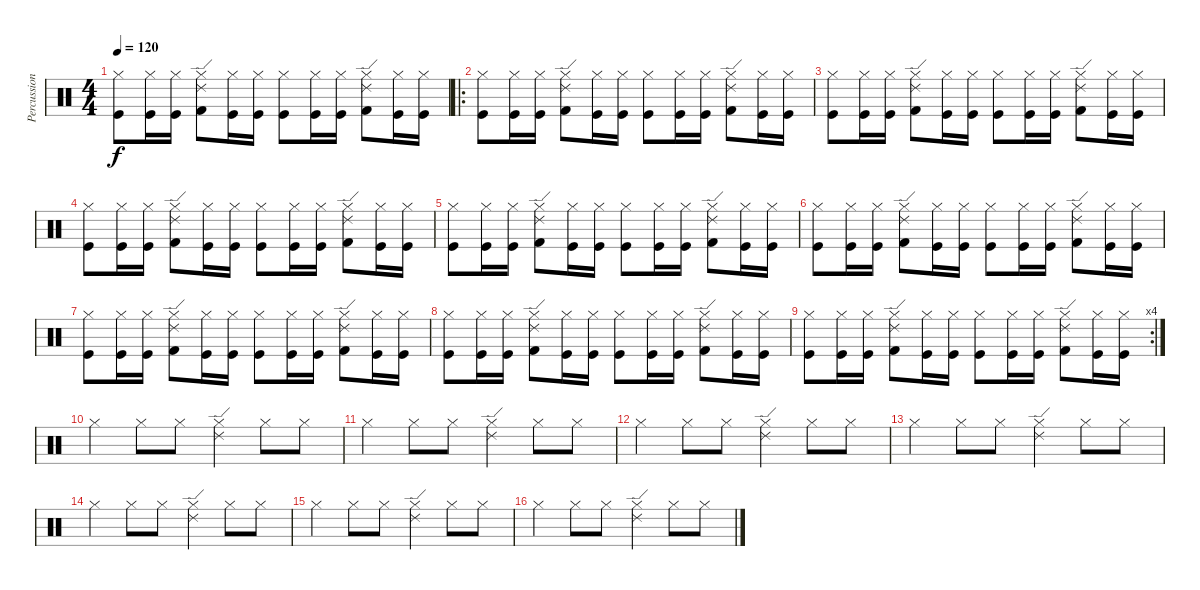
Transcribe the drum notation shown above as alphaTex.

\track ("Percussions" "Percussion") {instrument percussion}
\staff {score}
\articulation defaults
\ts (4 4)
\tempo 120
\clef neutral
\ks c
("Hi-Hat (closed)" "Kick (hit)").8{dy f} ("Hi-Hat (closed)" "Kick (hit)").16 ("Hi-Hat (closed)" "Kick (hit)").16 ("Hi-Hat (closed)" "Ride (edge) 2" "Kick (hit) 2").8 ("Hi-Hat (closed)" "Kick (hit)").16 ("Hi-Hat (closed)" "Kick (hit)").16 ("Hi-Hat (closed)" "Kick (hit)").8 ("Hi-Hat (closed)" "Kick (hit)").16 ("Hi-Hat (closed)" "Kick (hit)").16 ("Hi-Hat (closed)" "Ride (edge) 2" "Kick (hit) 2").8 ("Hi-Hat (closed)" "Kick (hit)").16 ("Hi-Hat (closed)" "Kick (hit)").16 |
\ro
("Hi-Hat (closed)" "Kick (hit)").8 ("Hi-Hat (closed)" "Kick (hit)").16 ("Hi-Hat (closed)" "Kick (hit)").16 ("Hi-Hat (closed)" "Ride (edge) 2" "Kick (hit) 2").8 ("Hi-Hat (closed)" "Kick (hit)").16 ("Hi-Hat (closed)" "Kick (hit)").16 ("Hi-Hat (closed)" "Kick (hit)").8 ("Hi-Hat (closed)" "Kick (hit)").16 ("Hi-Hat (closed)" "Kick (hit)").16 ("Hi-Hat (closed)" "Ride (edge) 2" "Kick (hit) 2").8 ("Hi-Hat (closed)" "Kick (hit)").16 ("Hi-Hat (closed)" "Kick (hit)").16 |
("Hi-Hat (closed)" "Kick (hit)").8 ("Hi-Hat (closed)" "Kick (hit)").16 ("Hi-Hat (closed)" "Kick (hit)").16 ("Hi-Hat (closed)" "Ride (edge) 2" "Kick (hit) 2").8 ("Hi-Hat (closed)" "Kick (hit)").16 ("Hi-Hat (closed)" "Kick (hit)").16 ("Hi-Hat (closed)" "Kick (hit)").8 ("Hi-Hat (closed)" "Kick (hit)").16 ("Hi-Hat (closed)" "Kick (hit)").16 ("Hi-Hat (closed)" "Ride (edge) 2" "Kick (hit) 2").8 ("Hi-Hat (closed)" "Kick (hit)").16 ("Hi-Hat (closed)" "Kick (hit)").16 |
("Hi-Hat (closed)" "Kick (hit)").8 ("Hi-Hat (closed)" "Kick (hit)").16 ("Hi-Hat (closed)" "Kick (hit)").16 ("Hi-Hat (closed)" "Ride (edge) 2" "Kick (hit) 2").8 ("Hi-Hat (closed)" "Kick (hit)").16 ("Hi-Hat (closed)" "Kick (hit)").16 ("Hi-Hat (closed)" "Kick (hit)").8 ("Hi-Hat (closed)" "Kick (hit)").16 ("Hi-Hat (closed)" "Kick (hit)").16 ("Hi-Hat (closed)" "Ride (edge) 2" "Kick (hit) 2").8 ("Hi-Hat (closed)" "Kick (hit)").16 ("Hi-Hat (closed)" "Kick (hit)").16 |
("Hi-Hat (closed)" "Kick (hit)").8 ("Hi-Hat (closed)" "Kick (hit)").16 ("Hi-Hat (closed)" "Kick (hit)").16 ("Hi-Hat (closed)" "Ride (edge) 2" "Kick (hit) 2").8 ("Hi-Hat (closed)" "Kick (hit)").16 ("Hi-Hat (closed)" "Kick (hit)").16 ("Hi-Hat (closed)" "Kick (hit)").8 ("Hi-Hat (closed)" "Kick (hit)").16 ("Hi-Hat (closed)" "Kick (hit)").16 ("Hi-Hat (closed)" "Ride (edge) 2" "Kick (hit) 2").8 ("Hi-Hat (closed)" "Kick (hit)").16 ("Hi-Hat (closed)" "Kick (hit)").16 |
("Hi-Hat (closed)" "Kick (hit)").8 ("Hi-Hat (closed)" "Kick (hit)").16 ("Hi-Hat (closed)" "Kick (hit)").16 ("Hi-Hat (closed)" "Ride (edge) 2" "Kick (hit) 2").8 ("Hi-Hat (closed)" "Kick (hit)").16 ("Hi-Hat (closed)" "Kick (hit)").16 ("Hi-Hat (closed)" "Kick (hit)").8 ("Hi-Hat (closed)" "Kick (hit)").16 ("Hi-Hat (closed)" "Kick (hit)").16 ("Hi-Hat (closed)" "Ride (edge) 2" "Kick (hit) 2").8 ("Hi-Hat (closed)" "Kick (hit)").16 ("Hi-Hat (closed)" "Kick (hit)").16 |
("Hi-Hat (closed)" "Kick (hit)").8 ("Hi-Hat (closed)" "Kick (hit)").16 ("Hi-Hat (closed)" "Kick (hit)").16 ("Hi-Hat (closed)" "Ride (edge) 2" "Kick (hit) 2").8 ("Hi-Hat (closed)" "Kick (hit)").16 ("Hi-Hat (closed)" "Kick (hit)").16 ("Hi-Hat (closed)" "Kick (hit)").8 ("Hi-Hat (closed)" "Kick (hit)").16 ("Hi-Hat (closed)" "Kick (hit)").16 ("Hi-Hat (closed)" "Ride (edge) 2" "Kick (hit) 2").8 ("Hi-Hat (closed)" "Kick (hit)").16 ("Hi-Hat (closed)" "Kick (hit)").16 |
("Hi-Hat (closed)" "Kick (hit)").8 ("Hi-Hat (closed)" "Kick (hit)").16 ("Hi-Hat (closed)" "Kick (hit)").16 ("Hi-Hat (closed)" "Ride (edge) 2" "Kick (hit) 2").8 ("Hi-Hat (closed)" "Kick (hit)").16 ("Hi-Hat (closed)" "Kick (hit)").16 ("Hi-Hat (closed)" "Kick (hit)").8 ("Hi-Hat (closed)" "Kick (hit)").16 ("Hi-Hat (closed)" "Kick (hit)").16 ("Hi-Hat (closed)" "Ride (edge) 2" "Kick (hit) 2").8 ("Hi-Hat (closed)" "Kick (hit)").16 ("Hi-Hat (closed)" "Kick (hit)").16 |
\rc 4
("Hi-Hat (closed)" "Kick (hit)").8 ("Hi-Hat (closed)" "Kick (hit)").16 ("Hi-Hat (closed)" "Kick (hit)").16 ("Hi-Hat (closed)" "Ride (edge) 2" "Kick (hit) 2").8 ("Hi-Hat (closed)" "Kick (hit)").16 ("Hi-Hat (closed)" "Kick (hit)").16 ("Hi-Hat (closed)" "Kick (hit)").8 ("Hi-Hat (closed)" "Kick (hit)").16 ("Hi-Hat (closed)" "Kick (hit)").16 ("Hi-Hat (closed)" "Ride (edge) 2" "Kick (hit) 2").8 ("Hi-Hat (closed)" "Kick (hit)").16 ("Hi-Hat (closed)" "Kick (hit)").16 |
"Hi-Hat (closed)".4 "Hi-Hat (closed)".8 "Hi-Hat (closed)".8 ("Hi-Hat (closed)" "Ride (edge) 2").4 "Hi-Hat (closed)".8 "Hi-Hat (closed)".8 |
"Hi-Hat (closed)".4 "Hi-Hat (closed)".8 "Hi-Hat (closed)".8 ("Hi-Hat (closed)" "Ride (edge) 2").4 "Hi-Hat (closed)".8 "Hi-Hat (closed)".8 |
"Hi-Hat (closed)".4 "Hi-Hat (closed)".8 "Hi-Hat (closed)".8 ("Hi-Hat (closed)" "Ride (edge) 2").4 "Hi-Hat (closed)".8 "Hi-Hat (closed)".8 |
"Hi-Hat (closed)".4 "Hi-Hat (closed)".8 "Hi-Hat (closed)".8 ("Hi-Hat (closed)" "Ride (edge) 2").4 "Hi-Hat (closed)".8 "Hi-Hat (closed)".8 |
"Hi-Hat (closed)".4 "Hi-Hat (closed)".8 "Hi-Hat (closed)".8 ("Hi-Hat (closed)" "Ride (edge) 2").4 "Hi-Hat (closed)".8 "Hi-Hat (closed)".8 |
"Hi-Hat (closed)".4 "Hi-Hat (closed)".8 "Hi-Hat (closed)".8 ("Hi-Hat (closed)" "Ride (edge) 2").4 "Hi-Hat (closed)".8 "Hi-Hat (closed)".8 |
"Hi-Hat (closed)".4 "Hi-Hat (closed)".8 "Hi-Hat (closed)".8 ("Hi-Hat (closed)" "Ride (edge) 2").4 "Hi-Hat (closed)".8 "Hi-Hat (closed)".8
